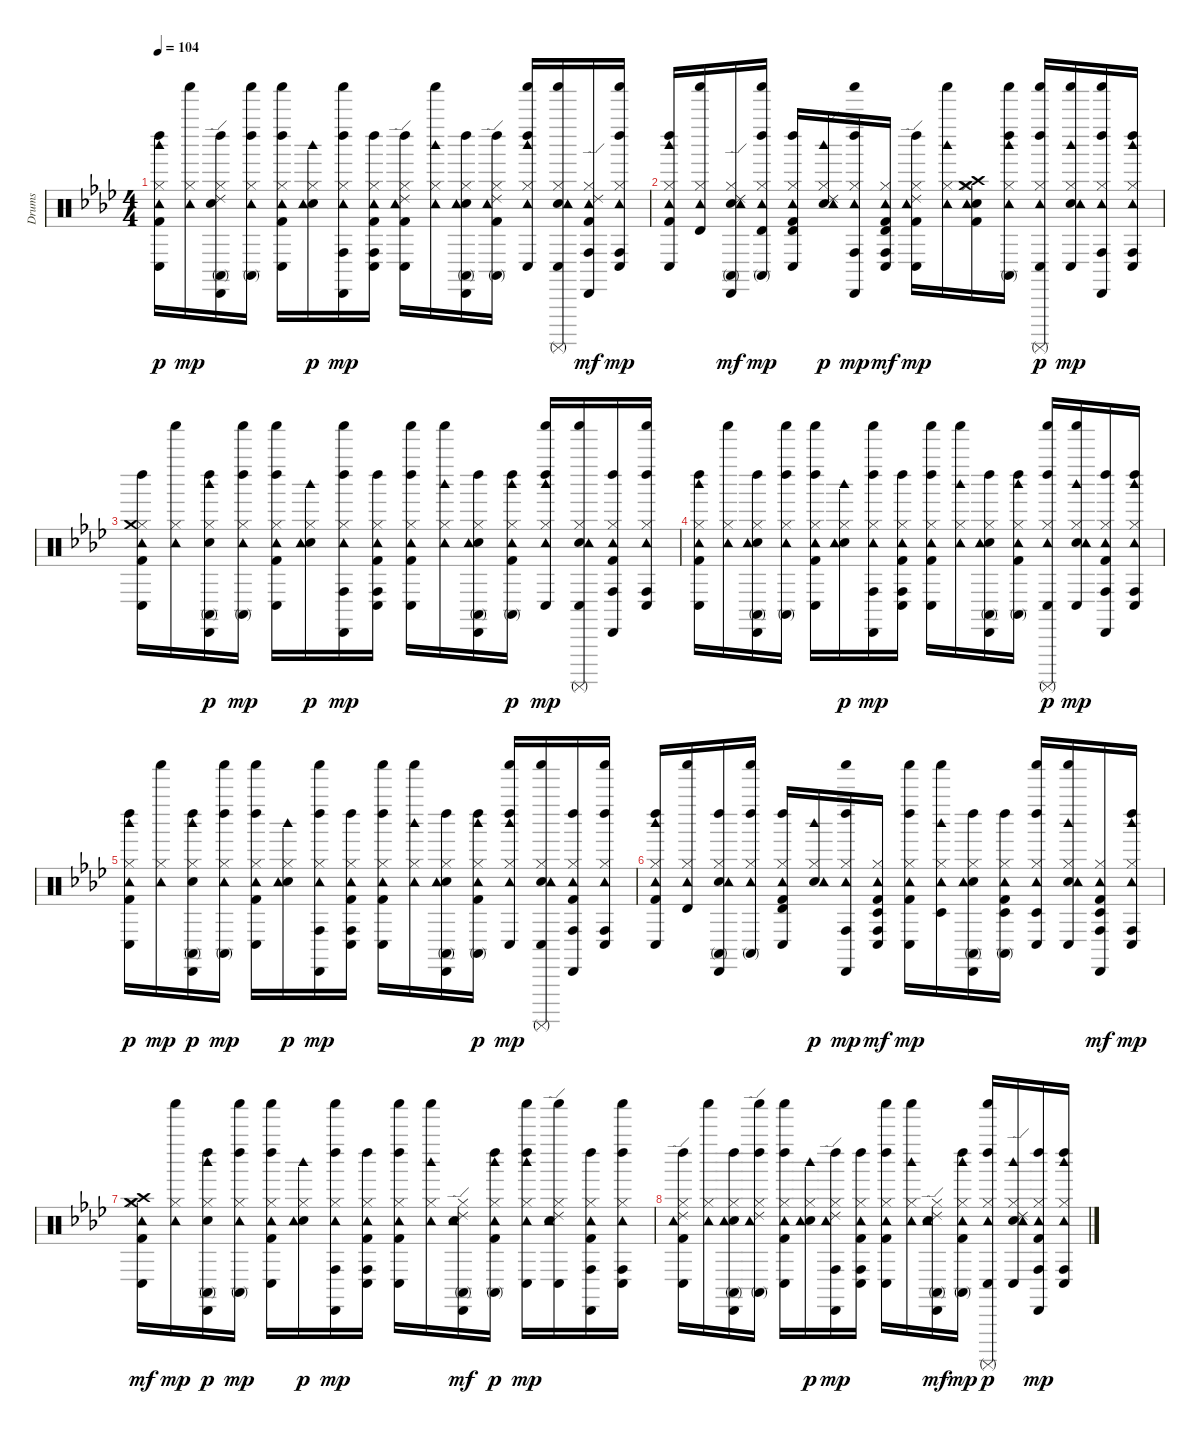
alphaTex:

\track ("Drums" "Drums") {instrument percussion}
\staff {score}
\articulation defaults
\ts (4 4)
\tempo 104
\clef neutral
\ks ab
("Kick (hit) 2" "Hi-Hat (closed)" "Tambourine (hit)" "Conga low (hit)" "Left Maraca (hit)" "Woodblock high (hit)").16{dy p} ("Hi-Hat (closed)" "Tambourine (hit)" "Shaker (hit)").16{dy mp} ("Hand Clap (hit)" "Hi-Hat (closed)" "Ride (edge) 2" "Conga high (mute)" "Cabasa (hit)" "Left Maraca (hit)").16 ("Hi-Hat (closed)" "Tambourine (hit)" "Conga high (mute)" "Left Maraca (hit)" "Shaker (hit)").16 ("Kick (hit) 2" "Hi-Hat (closed)" "Tambourine (hit)" "Conga low (hit)" "Left Maraca (hit)" "Shaker (hit)").16 ("Hand Clap (hit)" "Hi-Hat (closed)" "Tambourine (hit)" "Woodblock high (hit)").16{dy p} ("Hi-Hat (closed)" "Tambourine (hit)" "Conga high (hit)" "Cabasa (hit)" "Left Maraca (hit)" "Shaker (hit)").16{dy mp} ("Kick (hit) 2" "Hi-Hat (closed)" "Tambourine (hit)" "Conga high (hit)" "Conga low (hit)" "Left Maraca (hit)").16 ("Kick (hit) 2" "Hi-Hat (closed)" "Tambourine (hit)" "Ride (edge) 2" "Conga low (hit)" "Left Maraca (hit)").16 ("Hi-Hat (closed)" "Tambourine (hit)" "Woodblock high (hit)" "Shaker (hit)").16 ("Hand Clap (hit)" "Hi-Hat (closed)" "Tambourine (hit)" "Conga high (mute)" "Cabasa (hit)" "Left Maraca (hit)").16 ("Kick (hit) 2" "Hi-Hat (closed)" "Tambourine (hit)" "Ride (edge) 2" "Conga high (mute)" "Left Maraca (hit)").16 ("Hi-Hat (closed)" "Tambourine (hit)" "Conga low (hit)" "Left Maraca (hit)" "Woodblock high (hit)" "Shaker (hit)").16 ("Hand Clap (hit)" "Hi-Hat (closed)" "Tambourine (hit)" "Conga low (hit)" "Shaker (hit)" "Surdo (mute)").16 ("Kick (hit) 2" "Hi-Hat (closed)" "Tambourine (hit)" "Ride (edge) 2" "Conga high (hit)" "Cabasa (hit)").16{dy mf} ("Hi-Hat (closed)" "Tambourine (hit)" "Conga high (hit)" "Conga low (hit)" "Left Maraca (hit)" "Shaker (hit)").16{dy mp} |
("Kick (hit) 2" "Hi-Hat (closed)" "Tambourine (hit)" "Conga low (hit)" "Left Maraca (hit)" "Woodblock high (hit)").16 ("Hi-Hat (closed)" "Tambourine (hit)" "Timbale high (hit)" "Shaker (hit)").16 ("Hand Clap (hit)" "Hi-Hat (closed)" "Tambourine (hit)" "Ride (edge) 2" "Conga high (mute)" "Cabasa (hit)").16{dy mf} ("Hi-Hat (closed)" "Tambourine (hit)" "Conga high (mute)" "Timbale high (hit)" "Left Maraca (hit)" "Shaker (hit)").16{dy mp} ("Kick (hit) 2" "Hi-Hat (closed)" "Tambourine (hit)" "Conga low (hit)" "Timbale high (hit)" "Left Maraca (hit)").16 ("Hand Clap (hit)" "Hi-Hat (closed)" "Tambourine (hit)" "Ride (edge) 2" "Woodblock high (hit)").16{dy p} ("Hi-Hat (closed)" "Tambourine (hit)" "Conga high (hit)" "Cabasa (hit)" "Left Maraca (hit)" "Shaker (hit)").16{dy mp} ("Kick (hit) 2" "Hi-Hat (closed)" "Tambourine (hit)" "Conga high (hit)" "Conga low (hit)" "Timbale high (hit)").16{dy mf} ("Kick (hit) 2" "Hi-Hat (closed)" "Tambourine (hit)" "Ride (edge) 2" "Conga low (hit)" "Left Maraca (hit)").16{dy mp} ("Hi-Hat (closed)" "Tambourine (hit)" "Woodblock high (hit)" "Shaker (hit)").16 ("Kick (hit) 2" "Hand Clap (hit)" "Hi-Hat (closed)" "Crash high (hit)" "Tambourine (hit)" "Crash medium (hit)").16 ("Hi-Hat (closed)" "Tambourine (hit)" "Conga high (mute)" "Left Maraca (hit)" "Woodblock high (hit)" "Shaker (hit)").16 ("Hi-Hat (closed)" "Tambourine (hit)" "Conga low (hit)" "Left Maraca (hit)" "Shaker (hit)" "Surdo (mute)").16{dy p} ("Hand Clap (hit)" "Hi-Hat (closed)" "Tambourine (hit)" "Conga low (hit)" "Woodblock high (hit)" "Shaker (hit)").16{dy mp} ("Hi-Hat (closed)" "Tambourine (hit)" "Conga high (hit)" "Cabasa (hit)" "Left Maraca (hit)" "Shaker (hit)").16 ("Hi-Hat (closed)" "Tambourine (hit)" "Conga high (hit)" "Conga low (hit)" "Left Maraca (hit)" "Woodblock high (hit)").16 |
("Kick (hit) 2" "Hi-Hat (closed)" "Tambourine (hit)" "Crash medium (hit)" "Conga low (hit)" "Left Maraca (hit)").16 ("Hi-Hat (closed)" "Tambourine (hit)" "Shaker (hit)").16 ("Hand Clap (hit)" "Hi-Hat (closed)" "Conga high (mute)" "Cabasa (hit)" "Left Maraca (hit)" "Woodblock high (hit)").16{dy p} ("Hi-Hat (closed)" "Tambourine (hit)" "Conga high (mute)" "Left Maraca (hit)" "Shaker (hit)").16{dy mp} ("Kick (hit) 2" "Hi-Hat (closed)" "Tambourine (hit)" "Conga low (hit)" "Left Maraca (hit)" "Shaker (hit)").16 ("Hand Clap (hit)" "Hi-Hat (closed)" "Tambourine (hit)" "Woodblock high (hit)").16{dy p} ("Hi-Hat (closed)" "Tambourine (hit)" "Conga high (hit)" "Cabasa (hit)" "Left Maraca (hit)" "Shaker (hit)").16{dy mp} ("Kick (hit) 2" "Hi-Hat (closed)" "Tambourine (hit)" "Conga high (hit)" "Conga low (hit)" "Left Maraca (hit)").16 ("Kick (hit) 2" "Hi-Hat (closed)" "Tambourine (hit)" "Conga low (hit)" "Left Maraca (hit)" "Shaker (hit)").16 ("Hi-Hat (closed)" "Tambourine (hit)" "Woodblock high (hit)" "Shaker (hit)").16 ("Hand Clap (hit)" "Hi-Hat (closed)" "Tambourine (hit)" "Conga high (mute)" "Cabasa (hit)" "Left Maraca (hit)").16 ("Kick (hit) 2" "Hi-Hat (closed)" "Tambourine (hit)" "Conga high (mute)" "Left Maraca (hit)" "Woodblock high (hit)").16{dy p} ("Hi-Hat (closed)" "Tambourine (hit)" "Conga low (hit)" "Left Maraca (hit)" "Woodblock high (hit)" "Shaker (hit)").16{dy mp} ("Hand Clap (hit)" "Hi-Hat (closed)" "Tambourine (hit)" "Conga low (hit)" "Shaker (hit)" "Surdo (mute)").16 ("Kick (hit) 2" "Hi-Hat (closed)" "Tambourine (hit)" "Conga high (hit)" "Cabasa (hit)" "Left Maraca (hit)").16 ("Hi-Hat (closed)" "Tambourine (hit)" "Conga high (hit)" "Conga low (hit)" "Left Maraca (hit)" "Shaker (hit)").16 |
("Kick (hit) 2" "Hi-Hat (closed)" "Tambourine (hit)" "Conga low (hit)" "Left Maraca (hit)" "Woodblock high (hit)").16 ("Hi-Hat (closed)" "Tambourine (hit)" "Shaker (hit)").16 ("Hand Clap (hit)" "Hi-Hat (closed)" "Tambourine (hit)" "Conga high (mute)" "Cabasa (hit)" "Left Maraca (hit)").16 ("Hi-Hat (closed)" "Tambourine (hit)" "Conga high (mute)" "Left Maraca (hit)" "Shaker (hit)").16 ("Kick (hit) 2" "Hi-Hat (closed)" "Tambourine (hit)" "Conga low (hit)" "Left Maraca (hit)" "Shaker (hit)").16 ("Hand Clap (hit)" "Hi-Hat (closed)" "Tambourine (hit)" "Woodblock high (hit)").16{dy p} ("Hi-Hat (closed)" "Tambourine (hit)" "Conga high (hit)" "Cabasa (hit)" "Left Maraca (hit)" "Shaker (hit)").16{dy mp} ("Kick (hit) 2" "Hi-Hat (closed)" "Tambourine (hit)" "Conga high (hit)" "Conga low (hit)" "Left Maraca (hit)").16 ("Kick (hit) 2" "Hi-Hat (closed)" "Tambourine (hit)" "Conga low (hit)" "Left Maraca (hit)" "Shaker (hit)").16 ("Hi-Hat (closed)" "Tambourine (hit)" "Woodblock high (hit)" "Shaker (hit)").16 ("Hand Clap (hit)" "Hi-Hat (closed)" "Tambourine (hit)" "Conga high (mute)" "Cabasa (hit)" "Left Maraca (hit)").16 ("Kick (hit) 2" "Hi-Hat (closed)" "Tambourine (hit)" "Conga high (mute)" "Left Maraca (hit)" "Woodblock high (hit)").16 ("Hi-Hat (closed)" "Tambourine (hit)" "Conga low (hit)" "Left Maraca (hit)" "Shaker (hit)" "Surdo (mute)").16{dy p} ("Hand Clap (hit)" "Hi-Hat (closed)" "Tambourine (hit)" "Conga low (hit)" "Woodblock high (hit)" "Shaker (hit)").16{dy mp} ("Kick (hit) 2" "Hi-Hat (closed)" "Tambourine (hit)" "Conga high (hit)" "Cabasa (hit)" "Left Maraca (hit)").16 ("Hi-Hat (closed)" "Tambourine (hit)" "Conga high (hit)" "Conga low (hit)" "Left Maraca (hit)" "Woodblock high (hit)").16 |
("Kick (hit) 2" "Hi-Hat (closed)" "Tambourine (hit)" "Conga low (hit)" "Left Maraca (hit)" "Woodblock high (hit)").16{dy p} ("Hi-Hat (closed)" "Tambourine (hit)" "Shaker (hit)").16{dy mp} ("Hand Clap (hit)" "Hi-Hat (closed)" "Conga high (mute)" "Cabasa (hit)" "Left Maraca (hit)" "Woodblock high (hit)").16{dy p} ("Hi-Hat (closed)" "Tambourine (hit)" "Conga high (mute)" "Left Maraca (hit)" "Shaker (hit)").16{dy mp} ("Kick (hit) 2" "Hi-Hat (closed)" "Tambourine (hit)" "Conga low (hit)" "Left Maraca (hit)" "Shaker (hit)").16 ("Hand Clap (hit)" "Hi-Hat (closed)" "Tambourine (hit)" "Woodblock high (hit)").16{dy p} ("Hi-Hat (closed)" "Tambourine (hit)" "Conga high (hit)" "Cabasa (hit)" "Left Maraca (hit)" "Shaker (hit)").16{dy mp} ("Kick (hit) 2" "Hi-Hat (closed)" "Tambourine (hit)" "Conga high (hit)" "Conga low (hit)" "Left Maraca (hit)").16 ("Kick (hit) 2" "Hi-Hat (closed)" "Tambourine (hit)" "Conga low (hit)" "Left Maraca (hit)" "Shaker (hit)").16 ("Hi-Hat (closed)" "Tambourine (hit)" "Woodblock high (hit)" "Shaker (hit)").16 ("Hand Clap (hit)" "Hi-Hat (closed)" "Tambourine (hit)" "Conga high (mute)" "Cabasa (hit)" "Left Maraca (hit)").16 ("Kick (hit) 2" "Hi-Hat (closed)" "Tambourine (hit)" "Conga high (mute)" "Left Maraca (hit)" "Woodblock high (hit)").16{dy p} ("Hi-Hat (closed)" "Tambourine (hit)" "Conga low (hit)" "Left Maraca (hit)" "Woodblock high (hit)" "Shaker (hit)").16{dy mp} ("Hand Clap (hit)" "Hi-Hat (closed)" "Tambourine (hit)" "Conga low (hit)" "Shaker (hit)" "Surdo (mute)").16 ("Kick (hit) 2" "Hi-Hat (closed)" "Tambourine (hit)" "Conga high (hit)" "Cabasa (hit)" "Left Maraca (hit)").16 ("Hi-Hat (closed)" "Tambourine (hit)" "Conga high (hit)" "Conga low (hit)" "Left Maraca (hit)" "Shaker (hit)").16 |
("Kick (hit) 2" "Hi-Hat (closed)" "Tambourine (hit)" "Conga low (hit)" "Left Maraca (hit)" "Woodblock high (hit)").16 ("Hi-Hat (closed)" "Tambourine (hit)" "Timbale high (hit)" "Shaker (hit)").16 ("Hand Clap (hit)" "Hi-Hat (closed)" "Tambourine (hit)" "Conga high (mute)" "Cabasa (hit)" "Left Maraca (hit)").16 ("Hi-Hat (closed)" "Tambourine (hit)" "Conga high (mute)" "Left Maraca (hit)" "Shaker (hit)").16 ("Kick (hit) 2" "Hi-Hat (closed)" "Tambourine (hit)" "Conga low (hit)" "Timbale high (hit)" "Left Maraca (hit)").16 ("Hand Clap (hit)" "Hi-Hat (closed)" "Tambourine (hit)" "Woodblock high (hit)").16{dy p} ("Hi-Hat (closed)" "Tambourine (hit)" "Conga high (hit)" "Cabasa (hit)" "Left Maraca (hit)" "Shaker (hit)").16{dy mp} ("Kick (hit) 2" "Hi-Hat (closed)" "Tambourine (hit)" "Conga high (hit)" "Conga low (hit)" "Timbale low (hit)").16{dy mf} ("Kick (hit) 2" "Hi-Hat (closed)" "Tambourine (hit)" "Conga low (hit)" "Left Maraca (hit)" "Shaker (hit)").16{dy mp} ("Hi-Hat (closed)" "Tambourine (hit)" "Timbale low (hit)" "Woodblock high (hit)" "Shaker (hit)").16 ("Hand Clap (hit)" "Hi-Hat (closed)" "Tambourine (hit)" "Conga high (mute)" "Cabasa (hit)" "Left Maraca (hit)").16 ("Kick (hit) 2" "Hi-Hat (closed)" "Tambourine (hit)" "Conga high (mute)" "Timbale low (hit)" "Left Maraca (hit)").16 ("Hi-Hat (closed)" "Tambourine (hit)" "Conga low (hit)" "Timbale low (hit)" "Left Maraca (hit)" "Shaker (hit)").16 ("Hand Clap (hit)" "Hi-Hat (closed)" "Tambourine (hit)" "Conga low (hit)" "Woodblock high (hit)" "Shaker (hit)").16 ("Kick (hit) 2" "Hi-Hat (closed)" "Tambourine (hit)" "Conga high (hit)" "Timbale low (hit)" "Cabasa (hit)").16{dy mf} ("Hi-Hat (closed)" "Tambourine (hit)" "Conga high (hit)" "Conga low (hit)" "Left Maraca (hit)" "Woodblock high (hit)").16{dy mp} |
("Kick (hit) 2" "Hi-Hat (closed)" "Crash high (hit)" "Tambourine (hit)" "Crash medium (hit)" "Conga low (hit)").16{dy mf} ("Hi-Hat (closed)" "Tambourine (hit)" "Shaker (hit)").16{dy mp} ("Hand Clap (hit)" "Hi-Hat (closed)" "Conga high (mute)" "Cabasa (hit)" "Left Maraca (hit)" "Woodblock high (hit)").16{dy p} ("Hi-Hat (closed)" "Tambourine (hit)" "Conga high (mute)" "Left Maraca (hit)" "Shaker (hit)").16{dy mp} ("Kick (hit) 2" "Hi-Hat (closed)" "Tambourine (hit)" "Conga low (hit)" "Left Maraca (hit)" "Shaker (hit)").16 ("Hand Clap (hit)" "Hi-Hat (closed)" "Tambourine (hit)" "Woodblock high (hit)").16{dy p} ("Hi-Hat (closed)" "Tambourine (hit)" "Conga high (hit)" "Cabasa (hit)" "Left Maraca (hit)" "Shaker (hit)").16{dy mp} ("Kick (hit) 2" "Hi-Hat (closed)" "Tambourine (hit)" "Conga high (hit)" "Conga low (hit)" "Left Maraca (hit)").16 ("Kick (hit) 2" "Hi-Hat (closed)" "Tambourine (hit)" "Conga low (hit)" "Left Maraca (hit)" "Shaker (hit)").16 ("Hi-Hat (closed)" "Tambourine (hit)" "Woodblock high (hit)" "Shaker (hit)").16 ("Hand Clap (hit)" "Hi-Hat (closed)" "Tambourine (hit)" "Ride (edge) 2" "Conga high (mute)" "Cabasa (hit)").16{dy mf} ("Kick (hit) 2" "Hi-Hat (closed)" "Tambourine (hit)" "Conga high (mute)" "Left Maraca (hit)" "Woodblock high (hit)").16{dy p} ("Hi-Hat (closed)" "Tambourine (hit)" "Conga low (hit)" "Left Maraca (hit)" "Woodblock high (hit)" "Shaker (hit)").16{dy mp} ("Hand Clap (hit)" "Hi-Hat (closed)" "Tambourine (hit)" "Ride (edge) 2" "Conga low (hit)" "Shaker (hit)").16 ("Kick (hit) 2" "Hi-Hat (closed)" "Tambourine (hit)" "Conga high (hit)" "Cabasa (hit)" "Left Maraca (hit)").16 ("Hi-Hat (closed)" "Tambourine (hit)" "Conga high (hit)" "Conga low (hit)" "Left Maraca (hit)" "Shaker (hit)").16 |
("Kick (hit) 2" "Hi-Hat (closed)" "Tambourine (hit)" "Ride (edge) 2" "Conga low (hit)" "Left Maraca (hit)").16 ("Hi-Hat (closed)" "Tambourine (hit)" "Shaker (hit)").16 ("Hand Clap (hit)" "Hi-Hat (closed)" "Tambourine (hit)" "Conga high (mute)" "Cabasa (hit)" "Left Maraca (hit)").16 ("Hi-Hat (closed)" "Tambourine (hit)" "Ride (edge) 2" "Conga high (mute)" "Left Maraca (hit)" "Shaker (hit)").16 ("Kick (hit) 2" "Hi-Hat (closed)" "Tambourine (hit)" "Conga low (hit)" "Left Maraca (hit)" "Shaker (hit)").16 ("Hand Clap (hit)" "Hi-Hat (closed)" "Tambourine (hit)" "Woodblock high (hit)").16{dy p} ("Hi-Hat (closed)" "Tambourine (hit)" "Ride (edge) 2" "Conga high (hit)" "Cabasa (hit)" "Left Maraca (hit)").16{dy mp} ("Kick (hit) 2" "Hi-Hat (closed)" "Tambourine (hit)" "Conga high (hit)" "Conga low (hit)" "Left Maraca (hit)").16 ("Kick (hit) 2" "Hi-Hat (closed)" "Tambourine (hit)" "Conga low (hit)" "Left Maraca (hit)" "Shaker (hit)").16 ("Hi-Hat (closed)" "Tambourine (hit)" "Woodblock high (hit)" "Shaker (hit)").16 ("Hand Clap (hit)" "Hi-Hat (closed)" "Tambourine (hit)" "Ride (edge) 2" "Conga high (mute)" "Cabasa (hit)").16{dy mf} ("Kick (hit) 2" "Hi-Hat (closed)" "Tambourine (hit)" "Conga high (mute)" "Left Maraca (hit)" "Woodblock high (hit)").16{dy mp} ("Hi-Hat (closed)" "Tambourine (hit)" "Conga low (hit)" "Left Maraca (hit)" "Shaker (hit)" "Surdo (mute)").16{dy p} ("Hand Clap (hit)" "Hi-Hat (closed)" "Tambourine (hit)" "Ride (edge) 2" "Conga low (hit)" "Woodblock high (hit)").16 ("Kick (hit) 2" "Hi-Hat (closed)" "Tambourine (hit)" "Conga high (hit)" "Cabasa (hit)" "Left Maraca (hit)").16{dy mp} ("Hi-Hat (closed)" "Tambourine (hit)" "Conga high (hit)" "Conga low (hit)" "Left Maraca (hit)" "Woodblock high (hit)").16
